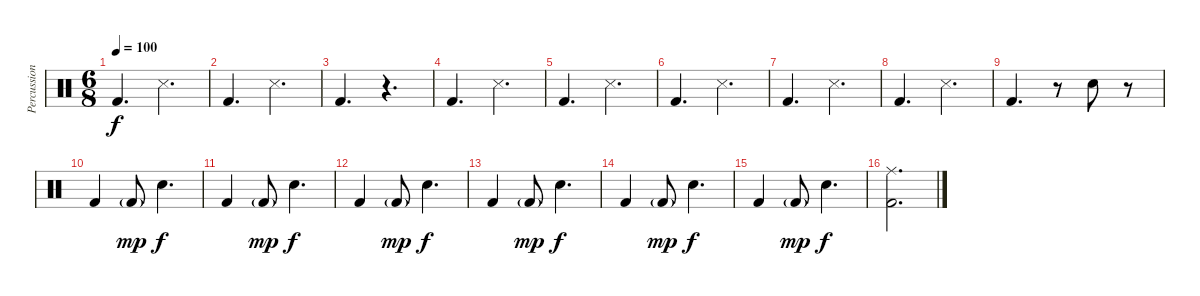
\track ("Percussion" "Percussion") {instrument percussion}
\staff {score}
\articulation defaults
\ts (6 8)
\tempo 100
\clef neutral
\ks c "Kick (hit) 2".4{d dy f} "Snare (side stick) 3".4{d}
|
"Kick (hit) 2".4{d} "Snare (side stick) 3".4{d} |
"Kick (hit) 2".4{d} r.4{d} |
"Kick (hit) 2".4{d} "Snare (side stick) 3".4{d} |
"Kick (hit) 2".4{d} "Snare (side stick) 3".4{d} |
"Kick (hit) 2".4{d} "Snare (side stick) 3".4{d} |
"Kick (hit) 2".4{d} "Snare (side stick) 3".4{d} |
"Kick (hit) 2".4{d} "Snare (side stick) 3".4{d} |
"Kick (hit) 2".4{d} r.8 "Snare (hit) 2".8 r.8 |
"Kick (hit) 2".4 "Kick (hit) 2"{g}.8{dy mp} "Snare (hit) 2".4{d dy f} |
"Kick (hit) 2".4 "Kick (hit) 2"{g}.8{dy mp} "Snare (hit) 2".4{d dy f} |
"Kick (hit) 2".4 "Kick (hit) 2"{g}.8{dy mp} "Snare (hit) 2".4{d dy f} |
"Kick (hit) 2".4 "Kick (hit) 2"{g}.8{dy mp} "Snare (hit) 2".4{d dy f} |
"Kick (hit) 2".4 "Kick (hit) 2"{g}.8{dy mp} "Snare (hit) 2".4{d dy f} |
"Kick (hit) 2".4 "Kick (hit) 2"{g}.8{dy mp} "Snare (hit) 2".4{d dy f} |
("Ride (middle)" "Kick (hit) 2").2{d}
